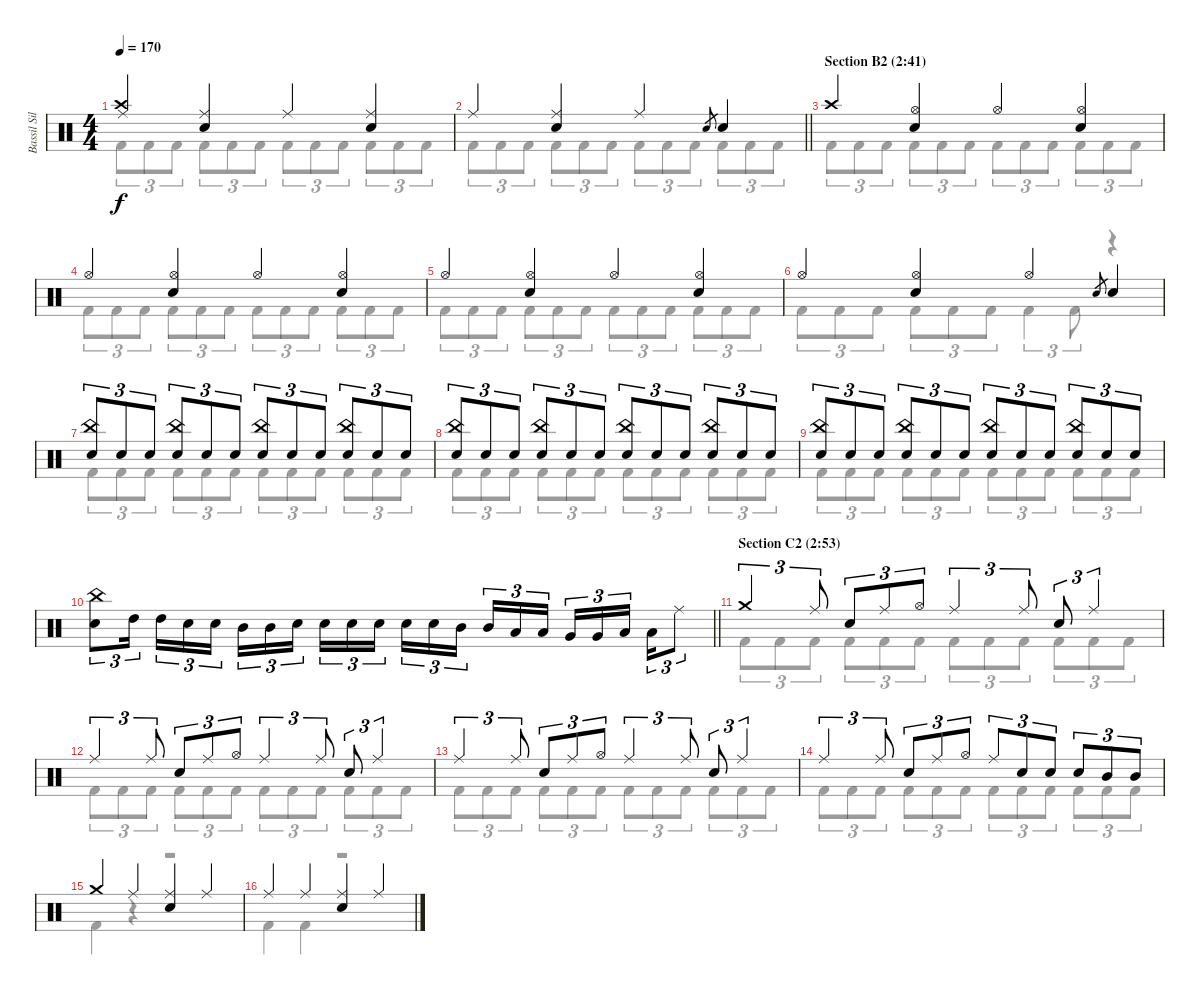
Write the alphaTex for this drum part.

\track ("Bassil Silver-Hajo" "Bassil Sil") {instrument percussion}
\staff {score}
\articulation defaults
\voice
\ts (4 4)
\tempo 170
\clef neutral
\ks c
("Crash high (hit)" "Ride (middle)").4{dy f} ("Ride (middle)" "Snare (hit) 2").4 "Ride (middle)".4 ("Ride (middle)" "Snare (hit) 2").4 |
\barLineRight lightlight "Ride (middle)".4
("Ride (middle)" "Snare (hit) 2").4 "Ride (middle)".4 "Snare (hit) 2".8{gr} "Snare (hit) 2".4 |
\section ("" "Section B2 (2:41)")
"Crash high (hit)".4 ("Hi-Hat (open)" "Snare (hit) 2").4 "Hi-Hat (open)".4 ("Hi-Hat (open)" "Snare (hit) 2").4 |
"Hi-Hat (open)".4 ("Hi-Hat (open)" "Snare (hit) 2").4 "Hi-Hat (open)".4 ("Hi-Hat (open)" "Snare (hit) 2").4 |
"Hi-Hat (open)".4 ("Hi-Hat (open)" "Snare (hit) 2").4 "Hi-Hat (open)".4 ("Hi-Hat (open)" "Snare (hit) 2").4 |
"Hi-Hat (open)".4 ("Hi-Hat (open)" "Snare (hit) 2").4 "Hi-Hat (open)".4 "Snare (hit) 2".8{gr} "Snare (hit) 2".4 |
("China (hit)" "Snare (hit) 2").8{tu (3 2)} "Snare (hit) 2".8{tu (3 2)} "Snare (hit) 2".8{tu (3 2)} ("China (hit)" "Snare (hit) 2").8{tu (3 2)} "Snare (hit) 2".8{tu (3 2)} "Snare (hit) 2".8{tu (3 2)} ("China (hit)" "Snare (hit) 2").8{tu (3 2)} "Snare (hit) 2".8{tu (3 2)} "Snare (hit) 2".8{tu (3 2)} ("China (hit)" "Snare (hit) 2").8{tu (3 2)} "Snare (hit) 2".8{tu (3 2)} "Snare (hit) 2".8{tu (3 2)} |
("China (hit)" "Snare (hit) 2").8{tu (3 2)} "Snare (hit) 2".8{tu (3 2)} "Snare (hit) 2".8{tu (3 2)} ("China (hit)" "Snare (hit) 2").8{tu (3 2)} "Snare (hit) 2".8{tu (3 2)} "Snare (hit) 2".8{tu (3 2)} ("China (hit)" "Snare (hit) 2").8{tu (3 2)} "Snare (hit) 2".8{tu (3 2)} "Snare (hit) 2".8{tu (3 2)} ("China (hit)" "Snare (hit) 2").8{tu (3 2)} "Snare (hit) 2".8{tu (3 2)} "Snare (hit) 2".8{tu (3 2)} |
("China (hit)" "Snare (hit) 2").8{tu (3 2)} "Snare (hit) 2".8{tu (3 2)} "Snare (hit) 2".8{tu (3 2)} ("China (hit)" "Snare (hit) 2").8{tu (3 2)} "Snare (hit) 2".8{tu (3 2)} "Snare (hit) 2".8{tu (3 2)} ("China (hit)" "Snare (hit) 2").8{tu (3 2)} "Snare (hit) 2".8{tu (3 2)} "Snare (hit) 2".8{tu (3 2)} ("China (hit)" "Snare (hit) 2").8{tu (3 2)} "Snare (hit) 2".8{tu (3 2)} "Snare (hit) 2".8{tu (3 2)} |
\barLineRight lightlight
("China (hit)" "Snare (hit) 2").8{tu (3 2)} "High Tom (hit)".16{tu (3 2) beam splitsecondary} "High Tom (hit)".16{tu (3 2)} "Snare (hit) 2".16{tu (3 2)} "Snare (hit) 2".16{tu (3 2)} "Mid Tom (hit)".16{tu (3 2)} "Mid Tom (hit)".16{tu (3 2)} "Snare (hit) 2".16{tu (3 2) beam splitsecondary} "Snare (hit) 2".16{tu (3 2)} "Snare (hit) 2".16{tu (3 2)} "Snare (hit) 2".16{tu (3 2)} "Snare (hit) 2".16{tu (3 2)} "Snare (hit) 2".16{tu (3 2)} "Mid Tom (hit)".16{tu (3 2) beam splitsecondary} "Mid Tom (hit)".16{tu (3 2)} "Low Tom (hit)".16{tu (3 2)} "Low Tom (hit)".16{tu (3 2)} "Very Low Tom (hit)".16{tu (3 2)} "Very Low Tom (hit)".16{tu (3 2)} "Low Floor Tom (hit)".16{tu (3 2) beam splitsecondary} "Low Floor Tom (hit)".16{tu (3 2)} "Ride (middle)".8{tu (3 2)} |
\section ("" "Section C2 (2:53)")
"Crash medium (hit)".4{tu (3 2)} "Ride (middle)".8{tu (3 2)} "Snare (hit) 2".8{tu (3 2)} "Ride (middle)".8{tu (3 2)} "Hi-Hat (open)".8{tu (3 2)} "Ride (middle)".4{tu (3 2)} "Ride (middle)".8{tu (3 2)} "Snare (hit) 2".8{tu (3 2)} "Ride (middle)".4{tu (3 2)} |
"Ride (middle)".4{tu (3 2)} "Ride (middle)".8{tu (3 2)} "Snare (hit) 2".8{tu (3 2)} "Ride (middle)".8{tu (3 2)} "Hi-Hat (open)".8{tu (3 2)} "Ride (middle)".4{tu (3 2)} "Ride (middle)".8{tu (3 2)} "Snare (hit) 2".8{tu (3 2)} "Ride (middle)".4{tu (3 2)} |
"Ride (middle)".4{tu (3 2)} "Ride (middle)".8{tu (3 2)} "Snare (hit) 2".8{tu (3 2)} "Ride (middle)".8{tu (3 2)} "Hi-Hat (open)".8{tu (3 2)} "Ride (middle)".4{tu (3 2)} "Ride (middle)".8{tu (3 2)} "Snare (hit) 2".8{tu (3 2)} "Ride (middle)".4{tu (3 2)} |
"Ride (middle)".4{tu (3 2)} "Ride (middle)".8{tu (3 2)} "Snare (hit) 2".8{tu (3 2)} "Ride (middle)".8{tu (3 2)} "Hi-Hat (open)".8{tu (3 2)} "Ride (middle)".8{tu (3 2)} "Snare (hit) 2".8{tu (3 2)} "Snare (hit) 2".8{tu (3 2)} "Snare (hit) 2".8{tu (3 2)} "Mid Tom (hit)".8{tu (3 2)} "Mid Tom (hit)".8{tu (3 2)} |
"Crash medium (hit)".4 "Ride (middle)".4 ("Ride (middle)" "Snare (hit) 2").4 "Ride (middle)".4 |
"Ride (middle)".4 "Ride (middle)".4 ("Ride (middle)" "Snare (hit) 2").4 "Ride (middle)".4
\voice
\clef neutral
\ottava regular
\simile none
\ks c "Kick (hit) 2".8{tu (3 2) dy f} "Kick (hit) 2".8{tu (3 2)} "Kick (hit) 2".8{tu (3 2)} "Kick (hit) 2".8{tu (3 2)} "Kick (hit) 2".8{tu (3 2)} "Kick (hit) 2".8{tu (3 2)} "Kick (hit) 2".8{tu (3 2)} "Kick (hit) 2".8{tu (3 2)} "Kick (hit) 2".8{tu (3 2)} "Kick (hit) 2".8{tu (3 2)} "Kick (hit) 2".8{tu (3 2)} "Kick (hit) 2".8{tu (3 2)}
|
\barLineRight lightlight "Kick (hit) 2".8{tu (3 2)} "Kick (hit) 2".8{tu (3 2)} "Kick (hit) 2".8{tu (3 2)} "Kick (hit) 2".8{tu (3 2)} "Kick (hit) 2".8{tu (3 2)} "Kick (hit) 2".8{tu (3 2)} "Kick (hit) 2".8{tu (3 2)} "Kick (hit) 2".8{tu (3 2)} "Kick (hit) 2".8{tu (3 2)} "Kick (hit) 2".8{tu (3 2)} "Kick (hit) 2".8{tu (3 2)} "Kick (hit) 2".8{tu (3 2)}
|
"Kick (hit) 2".8{tu (3 2)} "Kick (hit) 2".8{tu (3 2)} "Kick (hit) 2".8{tu (3 2)} "Kick (hit) 2".8{tu (3 2)} "Kick (hit) 2".8{tu (3 2)} "Kick (hit) 2".8{tu (3 2)} "Kick (hit) 2".8{tu (3 2)} "Kick (hit) 2".8{tu (3 2)} "Kick (hit) 2".8{tu (3 2)} "Kick (hit) 2".8{tu (3 2)} "Kick (hit) 2".8{tu (3 2)} "Kick (hit) 2".8{tu (3 2)} |
"Kick (hit) 2".8{tu (3 2)} "Kick (hit) 2".8{tu (3 2)} "Kick (hit) 2".8{tu (3 2)} "Kick (hit) 2".8{tu (3 2)} "Kick (hit) 2".8{tu (3 2)} "Kick (hit) 2".8{tu (3 2)} "Kick (hit) 2".8{tu (3 2)} "Kick (hit) 2".8{tu (3 2)} "Kick (hit) 2".8{tu (3 2)} "Kick (hit) 2".8{tu (3 2)} "Kick (hit) 2".8{tu (3 2)} "Kick (hit) 2".8{tu (3 2)} |
"Kick (hit) 2".8{tu (3 2)} "Kick (hit) 2".8{tu (3 2)} "Kick (hit) 2".8{tu (3 2)} "Kick (hit) 2".8{tu (3 2)} "Kick (hit) 2".8{tu (3 2)} "Kick (hit) 2".8{tu (3 2)} "Kick (hit) 2".8{tu (3 2)} "Kick (hit) 2".8{tu (3 2)} "Kick (hit) 2".8{tu (3 2)} "Kick (hit) 2".8{tu (3 2)} "Kick (hit) 2".8{tu (3 2)} "Kick (hit) 2".8{tu (3 2)} |
"Kick (hit) 2".8{tu (3 2)} "Kick (hit) 2".8{tu (3 2)} "Kick (hit) 2".8{tu (3 2)} "Kick (hit) 2".8{tu (3 2)} "Kick (hit) 2".8{tu (3 2)} "Kick (hit) 2".8{tu (3 2)} "Kick (hit) 2".4{tu (3 2)} "Kick (hit) 2".8{tu (3 2)} r.4 |
"Kick (hit) 2".8{tu (3 2)} "Kick (hit) 2".8{tu (3 2)} "Kick (hit) 2".8{tu (3 2)} "Kick (hit) 2".8{tu (3 2)} "Kick (hit) 2".8{tu (3 2)} "Kick (hit) 2".8{tu (3 2)} "Kick (hit) 2".8{tu (3 2)} "Kick (hit) 2".8{tu (3 2)} "Kick (hit) 2".8{tu (3 2)} "Kick (hit) 2".8{tu (3 2)} "Kick (hit) 2".8{tu (3 2)} "Kick (hit) 2".8{tu (3 2)} |
"Kick (hit) 2".8{tu (3 2)} "Kick (hit) 2".8{tu (3 2)} "Kick (hit) 2".8{tu (3 2)} "Kick (hit) 2".8{tu (3 2)} "Kick (hit) 2".8{tu (3 2)} "Kick (hit) 2".8{tu (3 2)} "Kick (hit) 2".8{tu (3 2)} "Kick (hit) 2".8{tu (3 2)} "Kick (hit) 2".8{tu (3 2)} "Kick (hit) 2".8{tu (3 2)} "Kick (hit) 2".8{tu (3 2)} "Kick (hit) 2".8{tu (3 2)} |
"Kick (hit) 2".8{tu (3 2)} "Kick (hit) 2".8{tu (3 2)} "Kick (hit) 2".8{tu (3 2)} "Kick (hit) 2".8{tu (3 2)} "Kick (hit) 2".8{tu (3 2)} "Kick (hit) 2".8{tu (3 2)} "Kick (hit) 2".8{tu (3 2)} "Kick (hit) 2".8{tu (3 2)} "Kick (hit) 2".8{tu (3 2)} "Kick (hit) 2".8{tu (3 2)} "Kick (hit) 2".8{tu (3 2)} "Kick (hit) 2".8{tu (3 2)} |
\barLineRight lightlight
|
"Kick (hit) 2".8{tu (3 2)} "Kick (hit) 2".8{tu (3 2)} "Kick (hit) 2".8{tu (3 2)} "Kick (hit) 2".8{tu (3 2)} "Kick (hit) 2".8{tu (3 2)} "Kick (hit) 2".8{tu (3 2)} "Kick (hit) 2".8{tu (3 2)} "Kick (hit) 2".8{tu (3 2)} "Kick (hit) 2".8{tu (3 2)} "Kick (hit) 2".8{tu (3 2)} "Kick (hit) 2".8{tu (3 2)} "Kick (hit) 2".8{tu (3 2)} |
"Kick (hit) 2".8{tu (3 2)} "Kick (hit) 2".8{tu (3 2)} "Kick (hit) 2".8{tu (3 2)} "Kick (hit) 2".8{tu (3 2)} "Kick (hit) 2".8{tu (3 2)} "Kick (hit) 2".8{tu (3 2)} "Kick (hit) 2".8{tu (3 2)} "Kick (hit) 2".8{tu (3 2)} "Kick (hit) 2".8{tu (3 2)} "Kick (hit) 2".8{tu (3 2)} "Kick (hit) 2".8{tu (3 2)} "Kick (hit) 2".8{tu (3 2)} |
"Kick (hit) 2".8{tu (3 2)} "Kick (hit) 2".8{tu (3 2)} "Kick (hit) 2".8{tu (3 2)} "Kick (hit) 2".8{tu (3 2)} "Kick (hit) 2".8{tu (3 2)} "Kick (hit) 2".8{tu (3 2)} "Kick (hit) 2".8{tu (3 2)} "Kick (hit) 2".8{tu (3 2)} "Kick (hit) 2".8{tu (3 2)} "Kick (hit) 2".8{tu (3 2)} "Kick (hit) 2".8{tu (3 2)} "Kick (hit) 2".8{tu (3 2)} |
"Kick (hit) 2".8{tu (3 2)} "Kick (hit) 2".8{tu (3 2)} "Kick (hit) 2".8{tu (3 2)} "Kick (hit) 2".8{tu (3 2)} "Kick (hit) 2".8{tu (3 2)} "Kick (hit) 2".8{tu (3 2)} "Kick (hit) 2".8{tu (3 2)} "Kick (hit) 2".8{tu (3 2)} "Kick (hit) 2".8{tu (3 2)} "Kick (hit) 2".8{tu (3 2)} "Kick (hit) 2".8{tu (3 2)} "Kick (hit) 2".8{tu (3 2)} |
"Kick (hit) 2".4 r.4 r.2 |
"Kick (hit) 2".4 "Kick (hit) 2".4 r.2
